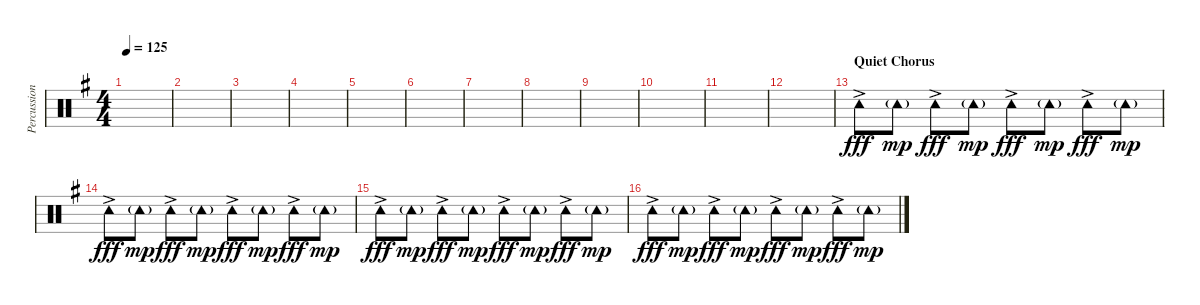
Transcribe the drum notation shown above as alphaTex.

\track ("Percussion" "Percussion") {instrument percussion}
\staff {score}
\articulation defaults
\ts (4 4)
\tempo 125
\clef neutral
\ks g
|
|
|
|
|
|
|
|
|
|
|
|
\section ("" "Quiet Chorus")
"Tambourine (hit)"{ac}.8{dy fff volume 6} "Tambourine (hit)"{g}.8{dy mp} "Tambourine (hit)"{ac}.8{dy fff} "Tambourine (hit)"{g}.8{dy mp} "Tambourine (hit)"{ac}.8{dy fff} "Tambourine (hit)"{g}.8{dy mp} "Tambourine (hit)"{ac}.8{dy fff} "Tambourine (hit)"{g}.8{dy mp} |
"Tambourine (hit)"{ac}.8{dy fff} "Tambourine (hit)"{g}.8{dy mp} "Tambourine (hit)"{ac}.8{dy fff} "Tambourine (hit)"{g}.8{dy mp} "Tambourine (hit)"{ac}.8{dy fff} "Tambourine (hit)"{g}.8{dy mp} "Tambourine (hit)"{ac}.8{dy fff} "Tambourine (hit)"{g}.8{dy mp} |
"Tambourine (hit)"{ac}.8{dy fff} "Tambourine (hit)"{g}.8{dy mp} "Tambourine (hit)"{ac}.8{dy fff} "Tambourine (hit)"{g}.8{dy mp} "Tambourine (hit)"{ac}.8{dy fff} "Tambourine (hit)"{g}.8{dy mp} "Tambourine (hit)"{ac}.8{dy fff} "Tambourine (hit)"{g}.8{dy mp} |
"Tambourine (hit)"{ac}.8{dy fff} "Tambourine (hit)"{g}.8{dy mp} "Tambourine (hit)"{ac}.8{dy fff} "Tambourine (hit)"{g}.8{dy mp} "Tambourine (hit)"{ac}.8{dy fff} "Tambourine (hit)"{g}.8{dy mp} "Tambourine (hit)"{ac}.8{dy fff} "Tambourine (hit)"{g}.8{dy mp}
